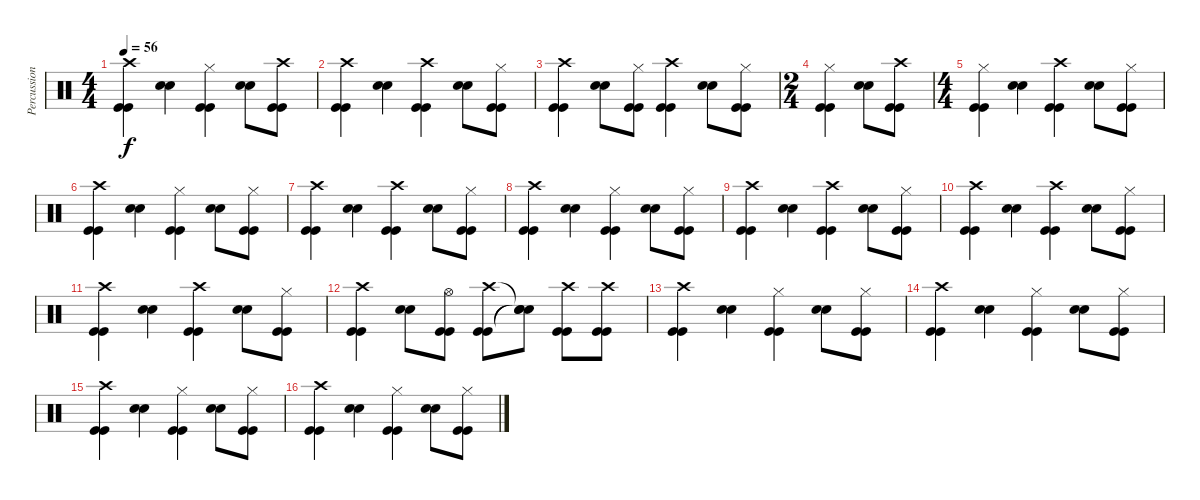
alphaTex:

\track ("Percussion" "Percussion") {instrument percussion}
\staff {score}
\articulation defaults
\ts (4 4)
\tempo 56
\clef neutral
\ks c
("Kick (hit)" "Kick (hit)" "Crash high (hit)").4{dy f} ("Snare (hit) 2" "Snare (hit) 2").4 ("Kick (hit)" "Kick (hit)" "Hi-Hat (closed)").4 ("Snare (hit) 2" "Snare (hit) 2").8 ("Kick (hit)" "Kick (hit)" "Crash high (hit)").8 |
("Kick (hit)" "Kick (hit)" "Crash high (hit)").4 ("Snare (hit) 2" "Snare (hit) 2").4 ("Kick (hit)" "Kick (hit)" "Crash high (hit)").4 ("Snare (hit) 2" "Snare (hit) 2").8 ("Kick (hit)" "Kick (hit)" "Hi-Hat (closed)").8 |
("Kick (hit)" "Kick (hit)" "Crash high (hit)").4 ("Snare (hit) 2" "Snare (hit) 2").8 ("Kick (hit)" "Kick (hit)" "Hi-Hat (closed)").8 ("Kick (hit)" "Kick (hit)" "Crash high (hit)").4 ("Snare (hit) 2" "Snare (hit) 2").8 ("Kick (hit)" "Kick (hit)" "Hi-Hat (closed)").8 |
\ts (2 4)
("Kick (hit)" "Kick (hit)" "Hi-Hat (closed)").4 ("Snare (hit) 2" "Snare (hit) 2").8 ("Kick (hit)" "Kick (hit)" "Crash high (hit)").8 |
\ts (4 4)
("Kick (hit)" "Kick (hit)" "Hi-Hat (closed)").4 ("Snare (hit) 2" "Snare (hit) 2").4 ("Kick (hit)" "Kick (hit)" "Crash high (hit)").4 ("Snare (hit) 2" "Snare (hit) 2").8 ("Kick (hit)" "Kick (hit)" "Hi-Hat (closed)").8 |
("Kick (hit)" "Kick (hit)" "Crash high (hit)").4 ("Snare (hit) 2" "Snare (hit) 2").4 ("Kick (hit)" "Kick (hit)" "Hi-Hat (closed)").4 ("Snare (hit) 2" "Snare (hit) 2").8 ("Kick (hit)" "Kick (hit)" "Hi-Hat (closed)").8 |
("Kick (hit)" "Kick (hit)" "Crash high (hit)").4 ("Snare (hit) 2" "Snare (hit) 2").4 ("Kick (hit)" "Kick (hit)" "Crash high (hit)").4 ("Snare (hit) 2" "Snare (hit) 2").8 ("Kick (hit)" "Kick (hit)" "Hi-Hat (closed)").8 |
("Kick (hit)" "Kick (hit)" "Crash high (hit)").4 ("Snare (hit) 2" "Snare (hit) 2").4 ("Kick (hit)" "Kick (hit)" "Hi-Hat (closed)").4 ("Snare (hit) 2" "Snare (hit) 2").8 ("Kick (hit)" "Kick (hit)" "Hi-Hat (closed)").8 |
("Kick (hit)" "Kick (hit)" "Crash high (hit)").4 ("Snare (hit) 2" "Snare (hit) 2").4 ("Kick (hit)" "Kick (hit)" "Crash high (hit)").4 ("Snare (hit) 2" "Snare (hit) 2").8 ("Kick (hit)" "Kick (hit)" "Hi-Hat (closed)").8 |
("Kick (hit)" "Kick (hit)" "Crash high (hit)").4 ("Snare (hit) 2" "Snare (hit) 2").4 ("Kick (hit)" "Kick (hit)" "Crash high (hit)").4 ("Snare (hit) 2" "Snare (hit) 2").8 ("Kick (hit)" "Kick (hit)" "Hi-Hat (closed)").8 |
("Kick (hit)" "Kick (hit)" "Crash high (hit)").4 ("Snare (hit) 2" "Snare (hit) 2").4 ("Kick (hit)" "Kick (hit)" "Crash high (hit)").4 ("Snare (hit) 2" "Snare (hit) 2").8 ("Kick (hit)" "Kick (hit)" "Hi-Hat (closed)").8 |
("Kick (hit)" "Kick (hit)" "Crash high (hit)").4 ("Snare (hit) 2" "Snare (hit) 2").8 ("Kick (hit)" "Hi-Hat (open)" "Kick (hit)").8 ("Kick (hit)" "Crash high (hit)" "Kick (hit)").8 ("Snare (hit)"{t} "Snare (hit)"{t} "Snare (hit)"{t}).8 ("Kick (hit)" "Crash high (hit)" "Kick (hit)").8 ("Kick (hit)" "Crash high (hit)" "Kick (hit)").8 |
("Kick (hit)" "Kick (hit)" "Crash high (hit)").4 ("Snare (hit) 2" "Snare (hit) 2").4 ("Kick (hit)" "Kick (hit)" "Hi-Hat (closed)").4 ("Snare (hit) 2" "Snare (hit) 2").8 ("Kick (hit)" "Kick (hit)" "Hi-Hat (closed)").8 |
("Kick (hit)" "Kick (hit)" "Crash high (hit)").4 ("Snare (hit) 2" "Snare (hit) 2").4 ("Kick (hit)" "Kick (hit)" "Hi-Hat (closed)").4 ("Snare (hit) 2" "Snare (hit) 2").8 ("Kick (hit)" "Kick (hit)" "Hi-Hat (closed)").8 |
("Kick (hit)" "Kick (hit)" "Crash high (hit)").4 ("Snare (hit) 2" "Snare (hit) 2").4 ("Kick (hit)" "Kick (hit)" "Hi-Hat (closed)").4 ("Snare (hit) 2" "Snare (hit) 2").8 ("Kick (hit)" "Kick (hit)" "Hi-Hat (closed)").8 |
("Kick (hit)" "Kick (hit)" "Crash high (hit)").4 ("Snare (hit) 2" "Snare (hit) 2").4 ("Kick (hit)" "Kick (hit)" "Hi-Hat (closed)").4 ("Snare (hit) 2" "Snare (hit) 2").8 ("Kick (hit)" "Kick (hit)" "Hi-Hat (closed)").8
